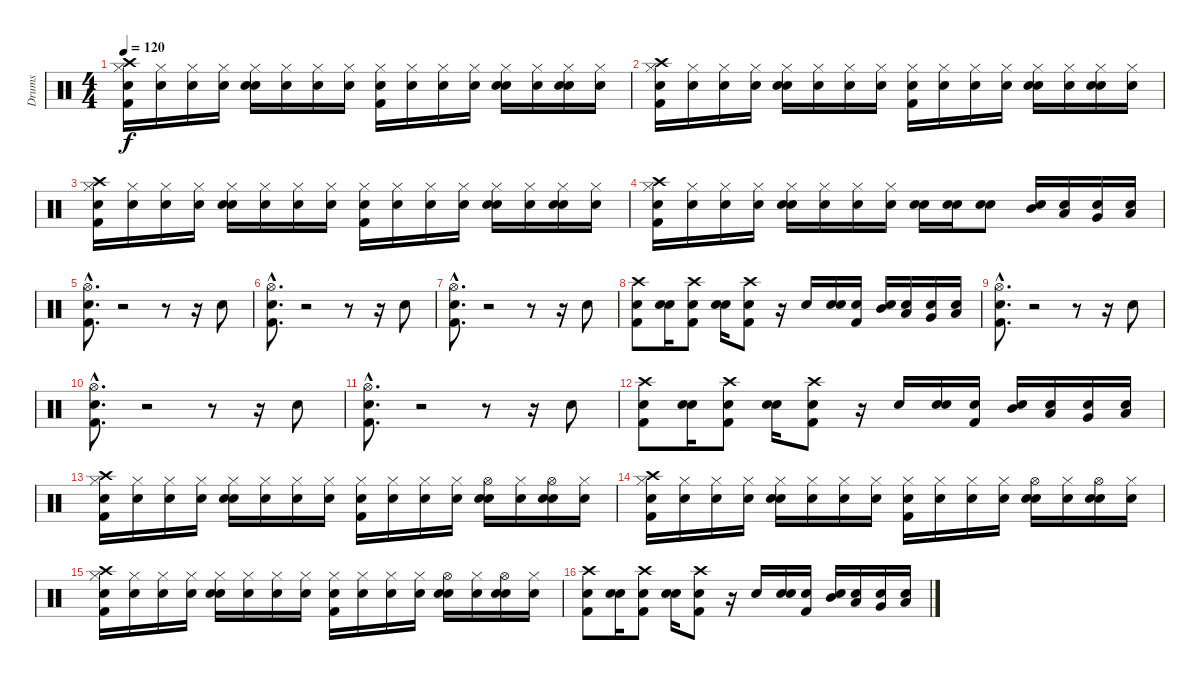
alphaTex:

\track ("Drums" "Drums") {instrument percussion}
\staff {score}
\articulation defaults
\ts (4 4)
\tempo 120
\clef neutral
\ks c
("Snare (hit)" "Kick (hit) 2" "Hi-Hat (closed)" "Crash high (hit)").16{dy f} ("Snare (hit)" "Hi-Hat (closed)").16 ("Snare (hit)" "Hi-Hat (closed)").16 ("Snare (hit)" "Hi-Hat (closed)").16 ("Snare (hit)" "Snare (hit) 2" "Hi-Hat (closed)").16 ("Snare (hit)" "Hi-Hat (closed)").16 ("Snare (hit)" "Hi-Hat (closed)").16 ("Snare (hit)" "Hi-Hat (closed)").16 ("Snare (hit)" "Kick (hit) 2" "Hi-Hat (closed)").16 ("Snare (hit)" "Hi-Hat (closed)").16 ("Snare (hit)" "Hi-Hat (closed)").16 ("Snare (hit)" "Hi-Hat (closed)").16 ("Snare (hit)" "Snare (hit) 2" "Hi-Hat (closed)").16 ("Snare (hit)" "Hi-Hat (closed)").16 ("Snare (hit)" "Snare (hit) 2" "Hi-Hat (closed)").16 ("Snare (hit)" "Hi-Hat (closed)").16 |
("Snare (hit)" "Kick (hit) 2" "Hi-Hat (closed)" "Crash high (hit)").16 ("Snare (hit)" "Hi-Hat (closed)").16 ("Snare (hit)" "Hi-Hat (closed)").16 ("Snare (hit)" "Hi-Hat (closed)").16 ("Snare (hit)" "Snare (hit) 2" "Hi-Hat (closed)").16 ("Snare (hit)" "Hi-Hat (closed)").16 ("Snare (hit)" "Hi-Hat (closed)").16 ("Snare (hit)" "Hi-Hat (closed)").16 ("Snare (hit)" "Kick (hit) 2" "Hi-Hat (closed)").16 ("Snare (hit)" "Hi-Hat (closed)").16 ("Snare (hit)" "Hi-Hat (closed)").16 ("Snare (hit)" "Hi-Hat (closed)").16 ("Snare (hit)" "Snare (hit) 2" "Hi-Hat (closed)").16 ("Snare (hit)" "Hi-Hat (closed)").16 ("Snare (hit)" "Snare (hit) 2" "Hi-Hat (closed)").16 ("Snare (hit)" "Hi-Hat (closed)").16 |
("Snare (hit)" "Kick (hit) 2" "Hi-Hat (closed)" "Crash high (hit)").16 ("Snare (hit)" "Hi-Hat (closed)").16 ("Snare (hit)" "Hi-Hat (closed)").16 ("Snare (hit)" "Hi-Hat (closed)").16 ("Snare (hit)" "Snare (hit) 2" "Hi-Hat (closed)").16 ("Snare (hit)" "Hi-Hat (closed)").16 ("Snare (hit)" "Hi-Hat (closed)").16 ("Snare (hit)" "Hi-Hat (closed)").16 ("Snare (hit)" "Kick (hit) 2" "Hi-Hat (closed)").16 ("Snare (hit)" "Hi-Hat (closed)").16 ("Snare (hit)" "Hi-Hat (closed)").16 ("Snare (hit)" "Hi-Hat (closed)").16 ("Snare (hit)" "Snare (hit) 2" "Hi-Hat (closed)").16 ("Snare (hit)" "Hi-Hat (closed)").16 ("Snare (hit)" "Snare (hit) 2" "Hi-Hat (closed)").16 ("Snare (hit)" "Hi-Hat (closed)").16 |
("Snare (hit)" "Kick (hit) 2" "Hi-Hat (closed)" "Crash high (hit)").16 ("Snare (hit)" "Hi-Hat (closed)").16 ("Snare (hit)" "Hi-Hat (closed)").16 ("Snare (hit)" "Hi-Hat (closed)").16 ("Snare (hit)" "Snare (hit) 2" "Hi-Hat (closed)").16 ("Snare (hit)" "Hi-Hat (closed)").16 ("Snare (hit)" "Hi-Hat (closed)").16 ("Snare (hit)" "Hi-Hat (closed)").16 ("Snare (hit)" "Snare (hit) 2").16 ("Snare (hit)" "Snare (hit) 2").16 ("Snare (hit)" "Snare (hit) 2").8 ("Snare (hit)" "Mid Tom (hit)").16 ("Snare (hit)" "Low Tom (hit)").16 ("Snare (hit)" "Very Low Tom (hit)").16 ("Snare (hit)" "Low Floor Tom (hit)").16 |
("Snare (hit)"{hac} "Kick (hit) 2"{hac} "Hi-Hat (open)"{hac}).8{d} r.2 r.8 r.16 "Snare (hit) 2".8 |
("Snare (hit)"{hac} "Kick (hit) 2"{hac} "Hi-Hat (open)"{hac}).8{d} r.2 r.8 r.16 "Snare (hit) 2".8 |
("Snare (hit)"{hac} "Kick (hit) 2"{hac} "Hi-Hat (open)"{hac}).8{d} r.2 r.8 r.16 "Snare (hit) 2".8 |
("Snare (hit)" "Kick (hit) 2" "Crash high (hit)").8 ("Snare (hit)" "Snare (hit) 2").16 ("Snare (hit)" "Kick (hit) 2" "Crash high (hit)").8 ("Snare (hit)" "Snare (hit) 2").16 ("Snare (hit)" "Kick (hit) 2" "Crash high (hit)").8 r.16 "Snare (hit) 2".16 ("Snare (hit)" "Snare (hit) 2").16 ("Snare (hit)" "Kick (hit) 2").16 ("Snare (hit)" "Mid Tom (hit)").16 ("Snare (hit)" "Low Tom (hit)").16 ("Snare (hit)" "Very Low Tom (hit)").16 ("Snare (hit)" "Low Floor Tom (hit)").16 |
("Snare (hit)"{hac} "Kick (hit) 2"{hac} "Hi-Hat (open)"{hac}).8{d} r.2 r.8 r.16 "Snare (hit) 2".8 |
("Snare (hit)"{hac} "Kick (hit) 2"{hac} "Hi-Hat (open)"{hac}).8{d} r.2 r.8 r.16 "Snare (hit) 2".8 |
("Snare (hit)"{hac} "Kick (hit) 2"{hac} "Hi-Hat (open)"{hac}).8{d} r.2 r.8 r.16 "Snare (hit) 2".8 |
("Snare (hit)" "Kick (hit) 2" "Crash high (hit)").8 ("Snare (hit)" "Snare (hit) 2").16 ("Snare (hit)" "Kick (hit) 2" "Crash high (hit)").8 ("Snare (hit)" "Snare (hit) 2").16 ("Snare (hit)" "Kick (hit) 2" "Crash high (hit)").8 r.16 "Snare (hit) 2".16 ("Snare (hit)" "Snare (hit) 2").16 ("Snare (hit)" "Kick (hit) 2").16 ("Snare (hit)" "Mid Tom (hit)").16 ("Snare (hit)" "Low Tom (hit)").16 ("Snare (hit)" "Very Low Tom (hit)").16 ("Snare (hit)" "Low Floor Tom (hit)").16 |
("Snare (hit)" "Kick (hit) 2" "Hi-Hat (closed)" "Crash high (hit)").16 ("Snare (hit)" "Hi-Hat (closed)").16 ("Snare (hit)" "Hi-Hat (closed)").16 ("Snare (hit)" "Hi-Hat (closed)").16 ("Snare (hit)" "Snare (hit) 2" "Hi-Hat (closed)").16 ("Snare (hit)" "Hi-Hat (closed)").16 ("Snare (hit)" "Hi-Hat (closed)").16 ("Snare (hit)" "Hi-Hat (closed)").16 ("Snare (hit)" "Kick (hit) 2" "Hi-Hat (closed)").16 ("Snare (hit)" "Hi-Hat (closed)").16 ("Snare (hit)" "Hi-Hat (closed)").16 ("Snare (hit)" "Hi-Hat (closed)").16 ("Snare (hit)" "Snare (hit) 2" "Hi-Hat (open)").16 ("Snare (hit)" "Hi-Hat (closed)").16 ("Snare (hit)" "Snare (hit) 2" "Hi-Hat (open)").16 ("Snare (hit)" "Hi-Hat (closed)").16 |
("Snare (hit)" "Kick (hit) 2" "Hi-Hat (closed)" "Crash high (hit)").16 ("Snare (hit)" "Hi-Hat (closed)").16 ("Snare (hit)" "Hi-Hat (closed)").16 ("Snare (hit)" "Hi-Hat (closed)").16 ("Snare (hit)" "Snare (hit) 2" "Hi-Hat (closed)").16 ("Snare (hit)" "Hi-Hat (closed)").16 ("Snare (hit)" "Hi-Hat (closed)").16 ("Snare (hit)" "Hi-Hat (closed)").16 ("Snare (hit)" "Kick (hit) 2" "Hi-Hat (closed)").16 ("Snare (hit)" "Hi-Hat (closed)").16 ("Snare (hit)" "Hi-Hat (closed)").16 ("Snare (hit)" "Hi-Hat (closed)").16 ("Snare (hit)" "Snare (hit) 2" "Hi-Hat (open)").16 ("Snare (hit)" "Hi-Hat (closed)").16 ("Snare (hit)" "Snare (hit) 2" "Hi-Hat (open)").16 ("Snare (hit)" "Hi-Hat (closed)").16 |
("Snare (hit)" "Kick (hit) 2" "Hi-Hat (closed)" "Crash high (hit)").16 ("Snare (hit)" "Hi-Hat (closed)").16 ("Snare (hit)" "Hi-Hat (closed)").16 ("Snare (hit)" "Hi-Hat (closed)").16 ("Snare (hit)" "Snare (hit) 2" "Hi-Hat (closed)").16 ("Snare (hit)" "Hi-Hat (closed)").16 ("Snare (hit)" "Hi-Hat (closed)").16 ("Snare (hit)" "Hi-Hat (closed)").16 ("Snare (hit)" "Kick (hit) 2" "Hi-Hat (closed)").16 ("Snare (hit)" "Hi-Hat (closed)").16 ("Snare (hit)" "Hi-Hat (closed)").16 ("Snare (hit)" "Hi-Hat (closed)").16 ("Snare (hit)" "Snare (hit) 2" "Hi-Hat (open)").16 ("Snare (hit)" "Hi-Hat (closed)").16 ("Snare (hit)" "Snare (hit) 2" "Hi-Hat (open)").16 ("Snare (hit)" "Hi-Hat (closed)").16 |
("Snare (hit)" "Kick (hit) 2" "Crash high (hit)").8 ("Snare (hit)" "Snare (hit) 2").16 ("Snare (hit)" "Kick (hit) 2" "Crash high (hit)").8 ("Snare (hit)" "Snare (hit) 2").16 ("Snare (hit)" "Kick (hit) 2" "Crash high (hit)").8 r.16 "Snare (hit) 2".16 ("Snare (hit)" "Snare (hit) 2").16 ("Snare (hit)" "Kick (hit) 2").16 ("Snare (hit)" "Mid Tom (hit)").16 ("Snare (hit)" "Low Tom (hit)").16 ("Snare (hit)" "Very Low Tom (hit)").16 ("Snare (hit)" "Low Floor Tom (hit)").16
